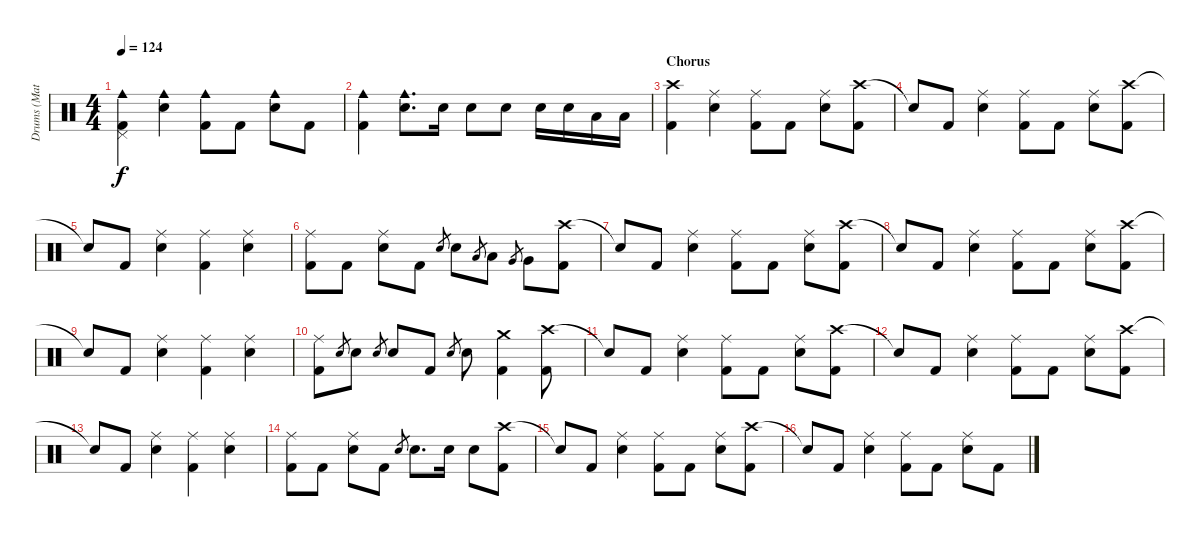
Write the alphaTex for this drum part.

\track ("Drums (Matt)" "Drums (Mat") {instrument percussion}
\staff {score}
\articulation defaults
\ts (4 4)
\tempo 124
\clef neutral
\ks c
("Cowbell medium (hit)" "Pedal Hi-Hat (hit)" "Kick (hit) 2").4{dy f} ("Cowbell medium (hit)" "Snare (hit) 2").4 ("Cowbell medium (hit)" "Kick (hit) 2").8 "Kick (hit) 2".8 ("Cowbell medium (hit)" "Snare (hit) 2").8 "Kick (hit) 2".8 |
("Cowbell medium (hit)" "Kick (hit) 2").4 ("Cowbell medium (hit)" "Snare (hit) 2").8{d} "Snare (hit) 2".16 "Snare (hit) 2".8 "Snare (hit) 2".8 "Snare (hit) 2".16 "Snare (hit) 2".16 "Low Tom (hit)".16 "Low Tom (hit)".16 |
\section ("" "Chorus")
("Crash high (hit)" "Kick (hit) 2").4 ("Ride (middle)" "Snare (hit) 2").4 ("Ride (middle)" "Kick (hit) 2").8 "Kick (hit) 2".8 ("Ride (middle)" "Snare (hit) 2").8 ("Crash high (hit)" "Kick (hit) 2").8 |
"Snare (hit)"{t}.8 "Kick (hit) 2".8 ("Ride (middle)" "Snare (hit) 2").4 ("Ride (middle)" "Kick (hit) 2").8 "Kick (hit) 2".8 ("Ride (middle)" "Snare (hit) 2").8 ("Crash high (hit)" "Kick (hit) 2").8 |
"Snare (hit)"{t}.8 "Kick (hit) 2".8 ("Ride (middle)" "Snare (hit) 2").4 ("Ride (middle)" "Kick (hit) 2").4 ("Ride (middle)" "Snare (hit) 2").4 |
("Ride (middle)" "Kick (hit) 2").8 "Kick (hit) 2".8 ("Ride (middle)" "Snare (hit) 2").8 "Kick (hit) 2".8 "Snare (hit) 2".8{gr} "Snare (hit) 2".8 "Low Tom (hit)".8{gr} "Low Tom (hit)".8 "Very Low Tom (hit)".8{gr} "Very Low Tom (hit)".8 ("Crash high (hit)" "Kick (hit) 2").8 |
"Snare (hit)"{t}.8 "Kick (hit) 2".8 ("Ride (middle)" "Snare (hit) 2").4 ("Ride (middle)" "Kick (hit) 2").8 "Kick (hit) 2".8 ("Ride (middle)" "Snare (hit) 2").8 ("Crash high (hit)" "Kick (hit) 2").8 |
"Snare (hit)"{t}.8 "Kick (hit) 2".8 ("Ride (middle)" "Snare (hit) 2").4 ("Ride (middle)" "Kick (hit) 2").8 "Kick (hit) 2".8 ("Ride (middle)" "Snare (hit) 2").8 ("Crash high (hit)" "Kick (hit) 2").8 |
"Snare (hit)"{t}.8 "Kick (hit) 2".8 ("Ride (middle)" "Snare (hit) 2").4 ("Ride (middle)" "Kick (hit) 2").4 ("Ride (middle)" "Snare (hit) 2").4 |
("Ride (middle)" "Kick (hit) 2").8 "Snare (hit) 2".8{gr} "Snare (hit) 2".8 "Snare (hit) 2".8{gr} "Snare (hit) 2".8 "Kick (hit) 2".8 "Snare (hit) 2".8{gr} "Snare (hit) 2".8 ("Crash medium (hit)" "Kick (hit) 2").4 ("Crash high (hit)" "Kick (hit) 2").8 |
"Snare (hit)"{t}.8 "Kick (hit) 2".8 ("Ride (middle)" "Snare (hit) 2").4 ("Ride (middle)" "Kick (hit) 2").8 "Kick (hit) 2".8 ("Ride (middle)" "Snare (hit) 2").8 ("Crash high (hit)" "Kick (hit) 2").8 |
"Snare (hit)"{t}.8 "Kick (hit) 2".8 ("Ride (middle)" "Snare (hit) 2").4 ("Ride (middle)" "Kick (hit) 2").8 "Kick (hit) 2".8 ("Ride (middle)" "Snare (hit) 2").8 ("Crash high (hit)" "Kick (hit) 2").8 |
"Snare (hit)"{t}.8 "Kick (hit) 2".8 ("Ride (middle)" "Snare (hit) 2").4 ("Ride (middle)" "Kick (hit) 2").4 ("Ride (middle)" "Snare (hit) 2").4 |
("Ride (middle)" "Kick (hit) 2").8 "Kick (hit) 2".8 ("Ride (middle)" "Snare (hit) 2").8 "Kick (hit) 2".8 "Snare (hit) 2".8{gr} "Snare (hit) 2".8{d} "Snare (hit) 2".16 "Snare (hit) 2".8 ("Crash high (hit)" "Kick (hit) 2").8 |
"Snare (hit)"{t}.8 "Kick (hit) 2".8 ("Ride (middle)" "Snare (hit) 2").4 ("Ride (middle)" "Kick (hit) 2").8 "Kick (hit) 2".8 ("Ride (middle)" "Snare (hit) 2").8 ("Crash high (hit)" "Kick (hit) 2").8 |
"Snare (hit)"{t}.8 "Kick (hit) 2".8 ("Ride (middle)" "Snare (hit) 2").4 ("Ride (middle)" "Kick (hit) 2").8 "Kick (hit) 2".8 ("Ride (middle)" "Snare (hit) 2").8 "Kick (hit) 2".8
